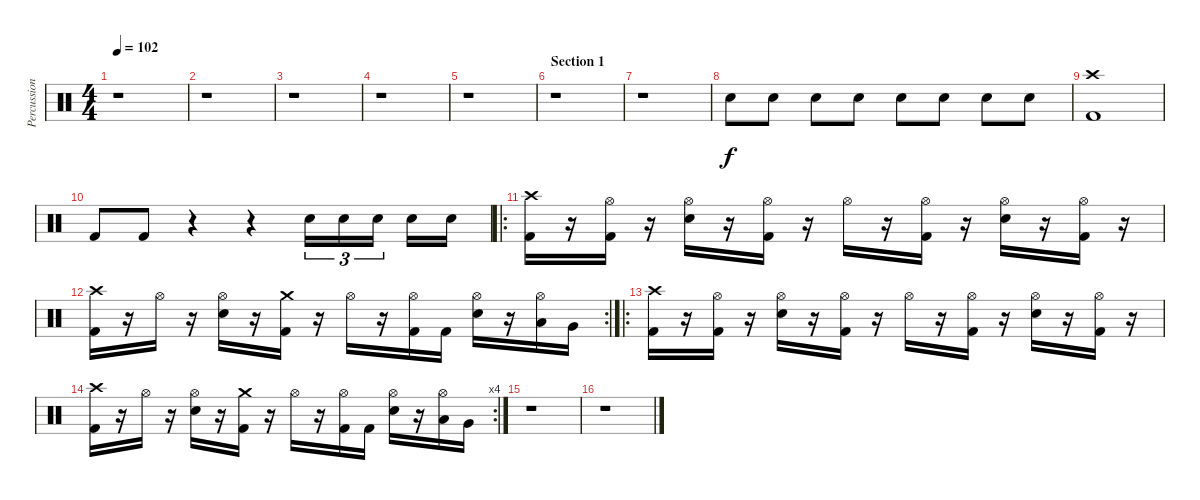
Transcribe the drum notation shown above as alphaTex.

\track ("Percussion" "Percussion") {instrument percussion}
\staff {score}
\articulation defaults
\ts (4 4)
\tempo 102
\clef neutral
\ks c
r.1{dy f} |
r.1 |
r.1 |
r.1 |
r.1 |
\section ("" "Section 1")
r.1 |
r.1 |
"Snare (hit) 2".8 "Snare (hit) 2".8 "Snare (hit) 2".8 "Snare (hit) 2".8 "Snare (hit) 2".8 "Snare (hit) 2".8 "Snare (hit) 2".8 "Snare (hit) 2".8 |
("Crash high (hit)" "Kick (hit) 2").1 |
"Kick (hit) 2".8 "Kick (hit) 2".8 r.4 r.4 "Snare (hit) 2".16{tu (3 2)} "Snare (hit) 2".16{tu (3 2)} "Snare (hit) 2".16{tu (3 2)} "Snare (hit) 2".16 "Snare (hit) 2".16 |
\ro
("Crash high (hit)" "Kick (hit) 2").16 r.16 ("Hi-Hat (open)" "Kick (hit) 2").16 r.16 ("Hi-Hat (open)" "Snare (hit) 2").16 r.16 ("Hi-Hat (open)" "Kick (hit) 2").16 r.16 "Hi-Hat (open)".16 r.16 ("Hi-Hat (open)" "Kick (hit) 2").16 r.16 ("Hi-Hat (open)" "Snare (hit) 2").16 r.16 ("Hi-Hat (open)" "Kick (hit) 2").16 r.16 |
\rc 2
("Crash high (hit)" "Kick (hit) 2").16 r.16 "Hi-Hat (open)".16 r.16 ("Hi-Hat (open)" "Snare (hit) 2").16 r.16 ("Crash medium (hit)" "Kick (hit) 2").16 r.16 "Hi-Hat (open)".16 r.16 ("Hi-Hat (open)" "Kick (hit) 2").16 "Kick (hit) 2".16 ("Hi-Hat (open)" "Snare (hit) 2").16 r.16 ("Hi-Hat (open)" "Low Tom (hit)").16 "Very Low Tom (hit)".16 |
\ro
("Crash high (hit)" "Kick (hit) 2").16 r.16 ("Hi-Hat (open)" "Kick (hit) 2").16 r.16 ("Hi-Hat (open)" "Snare (hit) 2").16 r.16 ("Hi-Hat (open)" "Kick (hit) 2").16 r.16 "Hi-Hat (open)".16 r.16 ("Hi-Hat (open)" "Kick (hit) 2").16 r.16 ("Hi-Hat (open)" "Snare (hit) 2").16 r.16 ("Hi-Hat (open)" "Kick (hit) 2").16 r.16 |
\rc 4
("Crash high (hit)" "Kick (hit) 2").16 r.16 "Hi-Hat (open)".16 r.16 ("Hi-Hat (open)" "Snare (hit) 2").16 r.16 ("Crash medium (hit)" "Kick (hit) 2").16 r.16 "Hi-Hat (open)".16 r.16 ("Hi-Hat (open)" "Kick (hit) 2").16 "Kick (hit) 2".16 ("Hi-Hat (open)" "Snare (hit) 2").16 r.16 ("Hi-Hat (open)" "Low Tom (hit)").16 "Very Low Tom (hit)".16 |
r.1 |
r.1
